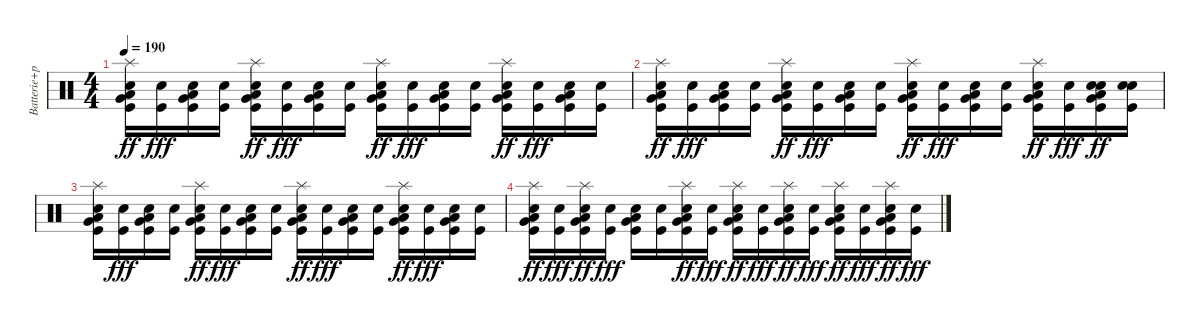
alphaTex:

\track ("Batterie+percussions" "Batterie+p") {instrument percussion}
\staff {score}
\articulation defaults
\ts (4 4)
\tempo 190
\clef neutral
\ks c
("Splash (hit)" "Kick (hit)" "Electric Snare (hit)" "Low Floor Tom (hit)" "Very Low Tom (hit)").16{dy ff} ("Snare (hit)" "Kick (hit)").16{dy fff} ("Snare (hit)" "Kick (hit)" "Low Floor Tom (hit)" "Very Low Tom (hit)").16 ("Snare (hit)" "Kick (hit)").16 ("Splash (hit)" "Kick (hit)" "Electric Snare (hit)" "Low Floor Tom (hit)" "Very Low Tom (hit)").16{dy ff} ("Snare (hit)" "Kick (hit)").16{dy fff} ("Snare (hit)" "Kick (hit)" "Low Floor Tom (hit)" "Very Low Tom (hit)").16 ("Snare (hit)" "Kick (hit)").16 ("Splash (hit)" "Kick (hit)" "Electric Snare (hit)" "Low Floor Tom (hit)" "Very Low Tom (hit)").16{dy ff} ("Snare (hit)" "Kick (hit)").16{dy fff} ("Snare (hit)" "Kick (hit)" "Low Floor Tom (hit)" "Very Low Tom (hit)").16 ("Snare (hit)" "Kick (hit)").16 ("Splash (hit)" "Kick (hit)" "Electric Snare (hit)" "Low Floor Tom (hit)" "Very Low Tom (hit)").16{dy ff} ("Snare (hit)" "Kick (hit)").16{dy fff} ("Snare (hit)" "Kick (hit)" "Low Floor Tom (hit)" "Very Low Tom (hit)").16 ("Snare (hit)" "Kick (hit)").16 |
("Splash (hit)" "Kick (hit)" "Electric Snare (hit)" "Low Floor Tom (hit)" "Very Low Tom (hit)").16{dy ff} ("Snare (hit)" "Kick (hit)").16{dy fff} ("Snare (hit)" "Kick (hit)" "Low Floor Tom (hit)" "Very Low Tom (hit)").16 ("Snare (hit)" "Kick (hit)").16 ("Splash (hit)" "Kick (hit)" "Electric Snare (hit)" "Low Floor Tom (hit)" "Very Low Tom (hit)").16{dy ff} ("Snare (hit)" "Kick (hit)").16{dy fff} ("Snare (hit)" "Kick (hit)" "Low Floor Tom (hit)" "Very Low Tom (hit)").16 ("Snare (hit)" "Kick (hit)").16 ("Splash (hit)" "Kick (hit)" "Electric Snare (hit)" "Low Floor Tom (hit)" "Very Low Tom (hit)").16{dy ff} ("Snare (hit)" "Kick (hit)").16{dy fff} ("Snare (hit)" "Kick (hit)" "Low Floor Tom (hit)" "Very Low Tom (hit)").16 ("Snare (hit)" "Kick (hit)").16 ("Splash (hit)" "Kick (hit)" "Electric Snare (hit)" "Low Floor Tom (hit)" "Very Low Tom (hit)").16{dy ff} ("Snare (hit)" "Kick (hit)").16{dy fff} ("Snare (hit)" "Kick (hit)" "Electric Snare (hit)" "Low Floor Tom (hit)" "Very Low Tom (hit)").16{dy ff} ("Snare (hit)" "Kick (hit)" "Electric Snare (hit)").16 |
("Splash (hit)" "Kick (hit)" "Electric Snare (hit)" "Low Floor Tom (hit)" "Very Low Tom (hit)").16 ("Snare (hit)" "Kick (hit)").16{dy fff} ("Snare (hit)" "Kick (hit)" "Low Floor Tom (hit)" "Very Low Tom (hit)").16 ("Snare (hit)" "Kick (hit)").16 ("Splash (hit)" "Kick (hit)" "Electric Snare (hit)" "Low Floor Tom (hit)" "Very Low Tom (hit)").16{dy ff} ("Snare (hit)" "Kick (hit)").16{dy fff} ("Snare (hit)" "Kick (hit)" "Low Floor Tom (hit)" "Very Low Tom (hit)").16 ("Snare (hit)" "Kick (hit)").16 ("Splash (hit)" "Kick (hit)" "Electric Snare (hit)" "Low Floor Tom (hit)" "Very Low Tom (hit)").16{dy ff} ("Snare (hit)" "Kick (hit)").16{dy fff} ("Snare (hit)" "Kick (hit)" "Low Floor Tom (hit)" "Very Low Tom (hit)").16 ("Snare (hit)" "Kick (hit)").16 ("Splash (hit)" "Kick (hit)" "Electric Snare (hit)" "Low Floor Tom (hit)" "Very Low Tom (hit)").16{dy ff} ("Snare (hit)" "Kick (hit)").16{dy fff} ("Snare (hit)" "Kick (hit)" "Low Floor Tom (hit)" "Very Low Tom (hit)").16 ("Snare (hit)" "Kick (hit)").16 |
("Splash (hit)" "Kick (hit)" "Electric Snare (hit)" "Low Floor Tom (hit)" "Very Low Tom (hit)").16{dy ff} ("Snare (hit)" "Kick (hit)").16{dy fff} ("Splash (hit)" "Kick (hit)" "Electric Snare (hit)" "Low Floor Tom (hit)" "Very Low Tom (hit)").16{dy ff} ("Snare (hit)" "Kick (hit)").16{dy fff} ("Snare (hit)" "Kick (hit)" "Low Floor Tom (hit)" "Very Low Tom (hit)").16 ("Snare (hit)" "Kick (hit)").16 ("Splash (hit)" "Kick (hit)" "Electric Snare (hit)" "Low Floor Tom (hit)" "Very Low Tom (hit)").16{dy ff} ("Snare (hit)" "Kick (hit)").16{dy fff} ("Splash (hit)" "Kick (hit)" "Electric Snare (hit)" "Low Floor Tom (hit)" "Very Low Tom (hit)").16{dy ff} ("Snare (hit)" "Kick (hit)").16{dy fff} ("Splash (hit)" "Kick (hit)" "Electric Snare (hit)" "Low Floor Tom (hit)" "Very Low Tom (hit)").16{dy ff} ("Snare (hit)" "Kick (hit)").16{dy fff} ("Splash (hit)" "Kick (hit)" "Electric Snare (hit)" "Low Floor Tom (hit)" "Very Low Tom (hit)").16{dy ff} ("Snare (hit)" "Kick (hit)").16{dy fff} ("Splash (hit)" "Kick (hit)" "Electric Snare (hit)" "Low Floor Tom (hit)" "Very Low Tom (hit)").16{dy ff} ("Snare (hit)" "Kick (hit)").16{dy fff}
